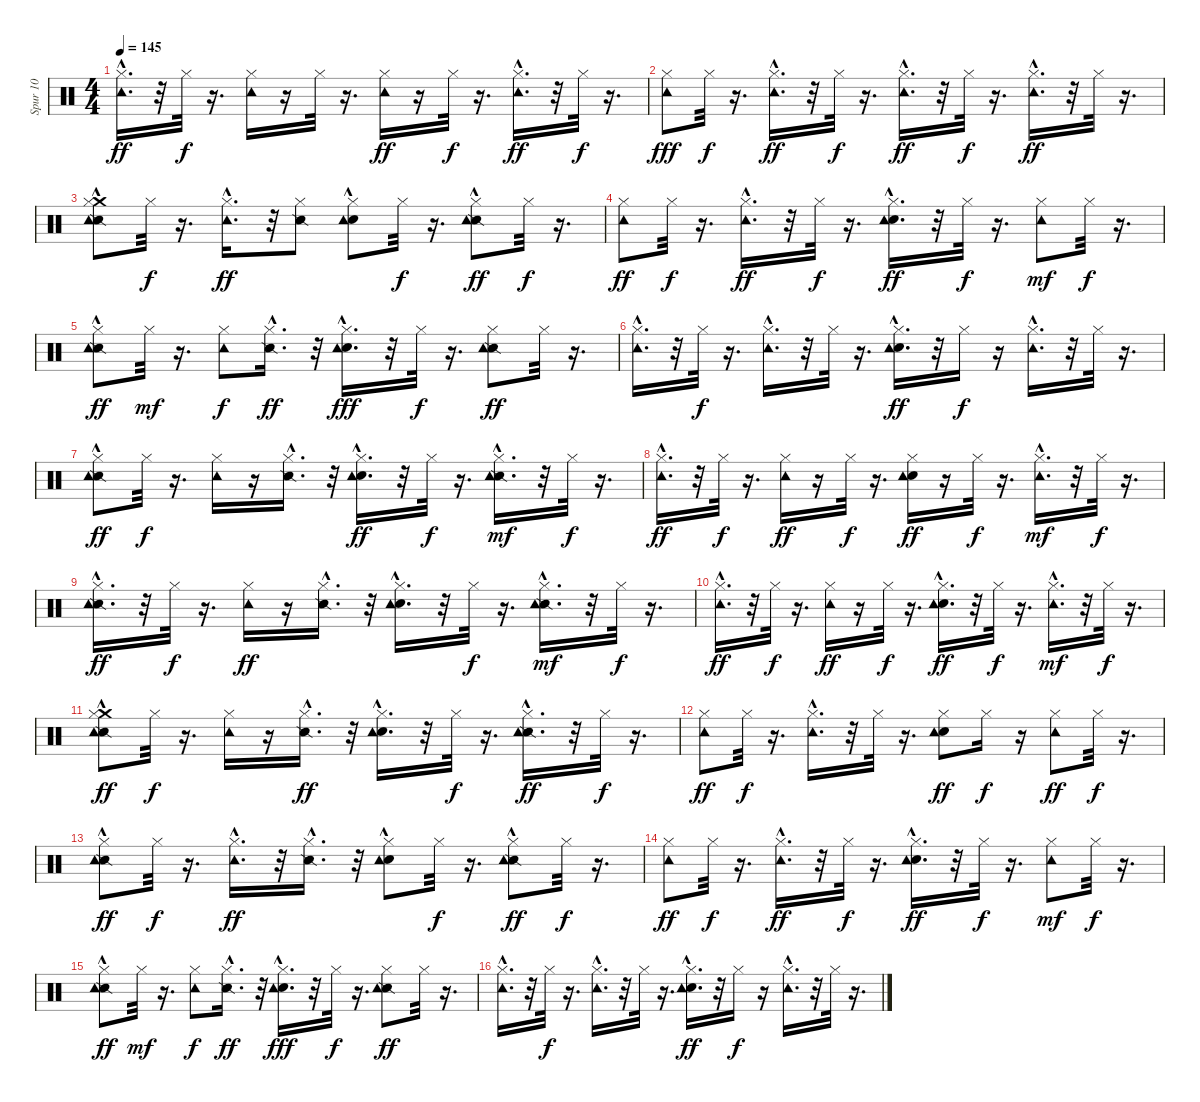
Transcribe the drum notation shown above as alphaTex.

\track ("Spur 10" "Spur 10") {instrument percussion}
\staff {score}
\articulation defaults
\ts (4 4)
\tempo 145
\clef neutral
\ks c
("Tambourine (hit)"{hac} "Hi-Hat (closed)").16{d dy ff} r.32 "Hi-Hat (closed)".32{dy f} r.16{d} ("Tambourine (hit)" "Hi-Hat (closed)").16 r.16 "Hi-Hat (closed)".32 r.16{d} ("Tambourine (hit)" "Hi-Hat (closed)").16{dy ff} r.16 "Hi-Hat (closed)".32{dy f} r.16{d} ("Tambourine (hit)"{hac} "Hi-Hat (closed)").16{d dy ff} r.32 "Hi-Hat (closed)".32{dy f} r.16{d} |
("Tambourine (hit)" "Hi-Hat (closed)").8{dy fff} "Hi-Hat (closed)".32{dy f} r.16{d} ("Tambourine (hit)"{hac} "Hi-Hat (closed)").16{d dy ff} r.32 "Hi-Hat (closed)".32{dy f} r.16{d} ("Tambourine (hit)"{hac} "Hi-Hat (closed)").16{d dy ff} r.32 "Hi-Hat (closed)".32{dy f} r.16{d} ("Tambourine (hit)"{hac} "Hi-Hat (closed)").16{d dy ff} r.32 "Hi-Hat (closed)".32 r.16{d} |
("Crash medium (hit)"{hac} "Snare (side stick) 2" "Tambourine (hit)" "Hi-Hat (closed)").8 "Hi-Hat (closed)".32{dy f} r.16{d} ("Tambourine (hit)"{hac} "Hi-Hat (closed)").16{d dy ff} r.32 ("Snare (side stick) 2" "Hi-Hat (closed)").8 ("Electric Snare (hit)"{hac} "Tambourine (hit)" "Hi-Hat (closed)").8 "Hi-Hat (closed)".32{dy f} r.16{d} ("Snare (side stick) 2"{hac} "Tambourine (hit)" "Hi-Hat (closed)").8{dy ff} "Hi-Hat (closed)".32{dy f} r.16{d} |
("Tambourine (hit)" "Hi-Hat (closed)").8{dy ff} "Hi-Hat (closed)".32{dy f} r.16{d} ("Tambourine (hit)"{hac} "Hi-Hat (closed)").16{d dy ff} r.32 "Hi-Hat (closed)".32{dy f} r.16{d} ("Electric Snare (hit)"{hac} "Tambourine (hit)"{hac} "Hi-Hat (closed)").16{d dy ff} r.32 "Hi-Hat (closed)".32{dy f} r.16{d} ("Tambourine (hit)" "Hi-Hat (closed)").8{dy mf} "Hi-Hat (closed)".32{dy f} r.16{d} |
("Snare (side stick) 2"{hac} "Tambourine (hit)" "Hi-Hat (closed)").8{dy ff} "Hi-Hat (closed)".32{dy mf} r.16{d} ("Tambourine (hit)" "Hi-Hat (closed)").8{dy f} ("Snare (side stick) 2"{hac} "Hi-Hat (closed)").16{d dy ff} r.32 ("Electric Snare (hit)"{hac} "Tambourine (hit)"{hac} "Hi-Hat (closed)").16{d dy fff} r.32 "Hi-Hat (closed)".32{dy f} r.16{d} ("Snare (side stick) 2" "Tambourine (hit)" "Hi-Hat (closed)").8{dy ff} "Hi-Hat (closed)".32 r.16{d} |
("Tambourine (hit)"{hac} "Hi-Hat (closed)").16{d} r.32 "Hi-Hat (closed)".32{dy f} r.16{d} ("Tambourine (hit)"{hac} "Hi-Hat (closed)").16{d} r.32 "Hi-Hat (closed)".32 r.16{d} ("Electric Snare (hit)"{hac} "Tambourine (hit)"{hac} "Hi-Hat (closed)").16{d dy ff} r.32 "Hi-Hat (closed)".16{dy f} r.16 ("Tambourine (hit)"{hac} "Hi-Hat (closed)").16{d} r.32 "Hi-Hat (closed)".32 r.16{d} |
("Snare (side stick) 2" "Tambourine (hit)"{hac} "Hi-Hat (closed)").8{dy ff} "Hi-Hat (closed)".32{dy f} r.16{d} ("Tambourine (hit)" "Hi-Hat (closed)").16 r.16 ("Snare (side stick) 2"{hac} "Hi-Hat (closed)").16{d} r.32 ("Electric Snare (hit)"{hac} "Tambourine (hit)"{hac} "Hi-Hat (closed)").16{d dy ff} r.32 "Hi-Hat (closed)".32{dy f} r.16{d} ("Snare (side stick) 2"{hac} "Tambourine (hit)"{hac} "Hi-Hat (closed)").16{d dy mf} r.32 "Hi-Hat (closed)".32{dy f} r.16{d} |
("Tambourine (hit)"{hac} "Hi-Hat (closed)").16{d dy ff} r.32 "Hi-Hat (closed)".32{dy f} r.16{d} ("Tambourine (hit)" "Hi-Hat (closed)").16{dy ff} r.16 "Hi-Hat (closed)".32{dy f} r.16{d} ("Electric Snare (hit)" "Tambourine (hit)" "Hi-Hat (closed)").16{dy ff} r.16 "Hi-Hat (closed)".32{dy f} r.16{d} ("Tambourine (hit)"{hac} "Hi-Hat (closed)").16{d dy mf} r.32 "Hi-Hat (closed)".32{dy f} r.16{d} |
("Snare (side stick) 2"{hac} "Tambourine (hit)"{hac} "Hi-Hat (closed)").16{d dy ff} r.32 "Hi-Hat (closed)".32{dy f} r.16{d} ("Tambourine (hit)" "Hi-Hat (closed)").16{dy ff} r.16 ("Snare (side stick) 2"{hac} "Hi-Hat (closed)").16{d} r.32 ("Electric Snare (hit)"{hac} "Tambourine (hit)" "Hi-Hat (closed)").16{d} r.32 "Hi-Hat (closed)".32{dy f} r.16{d} ("Snare (side stick) 2"{hac} "Tambourine (hit)"{hac} "Hi-Hat (closed)").16{d dy mf} r.32 "Hi-Hat (closed)".32{dy f} r.16{d} |
("Tambourine (hit)"{hac} "Hi-Hat (closed)").16{d dy ff} r.32 "Hi-Hat (closed)".32{dy f} r.16{d} ("Tambourine (hit)" "Hi-Hat (closed)").16{dy ff} r.16 "Hi-Hat (closed)".32{dy f} r.16{d} ("Electric Snare (hit)"{hac} "Tambourine (hit)" "Hi-Hat (closed)").16{d dy ff} r.32 "Hi-Hat (closed)".32{dy f} r.16{d} ("Tambourine (hit)"{hac} "Hi-Hat (closed)").16{d dy mf} r.32 "Hi-Hat (closed)".32{dy f} r.16{d} |
("Snare (side stick) 2"{hac} "Crash medium (hit)" "Tambourine (hit)"{hac} "Hi-Hat (closed)").8{dy ff} "Hi-Hat (closed)".32{dy f} r.16{d} ("Tambourine (hit)" "Hi-Hat (closed)").16 r.16 ("Snare (side stick) 2"{hac} "Hi-Hat (closed)").16{d dy ff} r.32 ("Electric Snare (hit)"{hac} "Tambourine (hit)" "Hi-Hat (closed)").16{d} r.32 "Hi-Hat (closed)".32{dy f} r.16{d} ("Snare (side stick) 2"{hac} "Tambourine (hit)"{hac} "Hi-Hat (closed)").16{d dy ff} r.32 "Hi-Hat (closed)".32{dy f} r.16{d} |
("Tambourine (hit)" "Hi-Hat (closed)").8{dy ff} "Hi-Hat (closed)".32{dy f} r.16{d} ("Tambourine (hit)"{hac} "Hi-Hat (closed)").16{d} r.32 "Hi-Hat (closed)".32 r.16{d} ("Electric Snare (hit)" "Tambourine (hit)" "Hi-Hat (closed)").8{dy ff} "Hi-Hat (closed)".16{dy f} r.16 ("Tambourine (hit)" "Hi-Hat (closed)").8{dy ff} "Hi-Hat (closed)".32{dy f} r.16{d} |
("Snare (side stick) 2"{hac} "Tambourine (hit)" "Hi-Hat (closed)").8{dy ff} "Hi-Hat (closed)".32{dy f} r.16{d} ("Tambourine (hit)"{hac} "Hi-Hat (closed)").16{d dy ff} r.32 ("Snare (side stick) 2"{hac} "Hi-Hat (closed)").16{d} r.32 ("Electric Snare (hit)"{hac} "Tambourine (hit)" "Hi-Hat (closed)").8 "Hi-Hat (closed)".32{dy f} r.16{d} ("Snare (side stick) 2"{hac} "Tambourine (hit)" "Hi-Hat (closed)").8{dy ff} "Hi-Hat (closed)".32{dy f} r.16{d} |
("Tambourine (hit)" "Hi-Hat (closed)").8{dy ff} "Hi-Hat (closed)".32{dy f} r.16{d} ("Tambourine (hit)"{hac} "Hi-Hat (closed)").16{d dy ff} r.32 "Hi-Hat (closed)".32{dy f} r.16{d} ("Electric Snare (hit)" "Tambourine (hit)"{hac} "Hi-Hat (closed)").16{d dy ff} r.32 "Hi-Hat (closed)".32{dy f} r.16{d} ("Tambourine (hit)" "Hi-Hat (closed)").8{dy mf} "Hi-Hat (closed)".32{dy f} r.16{d} |
("Snare (side stick) 2"{hac} "Tambourine (hit)" "Hi-Hat (closed)").8{dy ff} "Hi-Hat (closed)".32{dy mf} r.16{d} ("Tambourine (hit)" "Hi-Hat (closed)").8{dy f} ("Snare (side stick) 2"{hac} "Hi-Hat (closed)").16{d dy ff} r.32 ("Electric Snare (hit)"{hac} "Tambourine (hit)"{hac} "Hi-Hat (closed)").16{d dy fff} r.32 "Hi-Hat (closed)".32{dy f} r.16{d} ("Snare (side stick) 2" "Tambourine (hit)" "Hi-Hat (closed)").8{dy ff} "Hi-Hat (closed)".32 r.16{d} |
("Tambourine (hit)"{hac} "Hi-Hat (closed)").16{d} r.32 "Hi-Hat (closed)".32{dy f} r.16{d} ("Tambourine (hit)"{hac} "Hi-Hat (closed)").16{d} r.32 "Hi-Hat (closed)".32 r.16{d} ("Electric Snare (hit)"{hac} "Tambourine (hit)"{hac} "Hi-Hat (closed)").16{d dy ff} r.32 "Hi-Hat (closed)".16{dy f} r.16 ("Tambourine (hit)"{hac} "Hi-Hat (closed)").16{d} r.32 "Hi-Hat (closed)".32 r.16{d}
